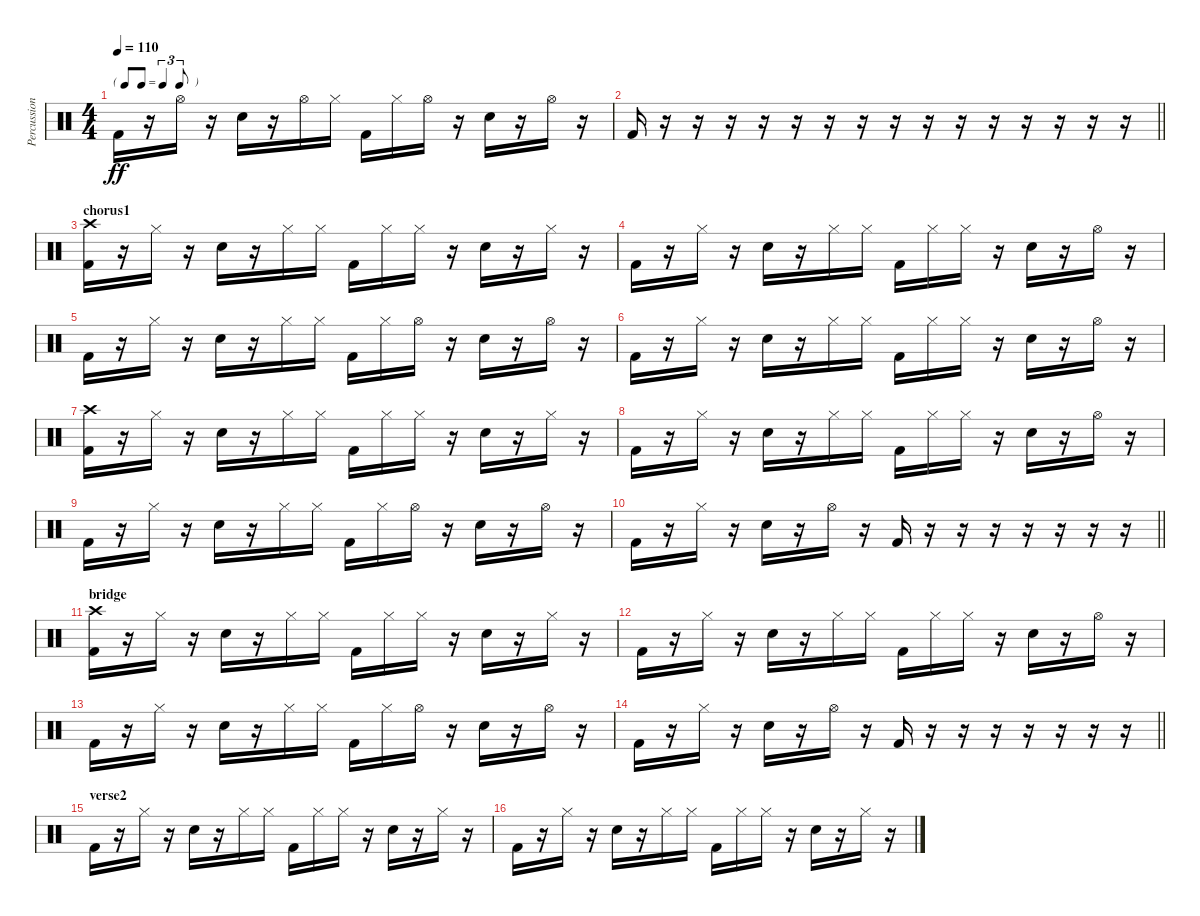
\track ("Percussion" "Percussion") {instrument percussion}
\staff {score}
\articulation defaults
\ts (4 4)
\tf triplet8th
\tempo 110
\clef neutral
\ks c "Kick (hit) 2".16{dy ff}
r.16 "Hi-Hat (open)".16 r.16 "Electric Snare (hit)".16 r.16 "Hi-Hat (open)".16 "Hi-Hat (closed)".16 "Kick (hit) 2".16 "Hi-Hat (closed)".16 "Hi-Hat (open)".16 r.16 "Electric Snare (hit)".16 r.16 "Hi-Hat (open)".16 r.16 |
\barLineRight lightlight "Kick (hit) 2".16
r.16 r.16 r.16 r.16 r.16 r.16 r.16 r.16 r.16 r.16 r.16 r.16 r.16 r.16 r.16 |
\section ("" "chorus1")
("Crash high (hit)" "Kick (hit) 2").16 r.16 "Hi-Hat (closed)".16 r.16 "Electric Snare (hit)".16 r.16 "Hi-Hat (closed)".16 "Hi-Hat (closed)".16 "Kick (hit) 2".16 "Hi-Hat (closed)".16 "Hi-Hat (closed)".16 r.16 "Electric Snare (hit)".16 r.16 "Hi-Hat (closed)".16 r.16 |
"Kick (hit) 2".16 r.16 "Hi-Hat (closed)".16 r.16 "Electric Snare (hit)".16 r.16 "Hi-Hat (closed)".16 "Hi-Hat (closed)".16 "Kick (hit) 2".16 "Hi-Hat (closed)".16 "Hi-Hat (closed)".16 r.16 "Electric Snare (hit)".16 r.16 "Hi-Hat (open)".16 r.16 |
"Kick (hit) 2".16 r.16 "Hi-Hat (closed)".16 r.16 "Electric Snare (hit)".16 r.16 "Hi-Hat (closed)".16 "Hi-Hat (closed)".16 "Kick (hit) 2".16 "Hi-Hat (closed)".16 "Hi-Hat (open)".16 r.16 "Electric Snare (hit)".16 r.16 "Hi-Hat (open)".16 r.16 |
"Kick (hit) 2".16 r.16 "Hi-Hat (closed)".16 r.16 "Electric Snare (hit)".16 r.16 "Hi-Hat (closed)".16 "Hi-Hat (closed)".16 "Kick (hit) 2".16 "Hi-Hat (closed)".16 "Hi-Hat (closed)".16 r.16 "Electric Snare (hit)".16 r.16 "Hi-Hat (open)".16 r.16 |
("Crash high (hit)" "Kick (hit) 2").16 r.16 "Hi-Hat (closed)".16 r.16 "Electric Snare (hit)".16 r.16 "Hi-Hat (closed)".16 "Hi-Hat (closed)".16 "Kick (hit) 2".16 "Hi-Hat (closed)".16 "Hi-Hat (closed)".16 r.16 "Electric Snare (hit)".16 r.16 "Hi-Hat (closed)".16 r.16 |
"Kick (hit) 2".16 r.16 "Hi-Hat (closed)".16 r.16 "Electric Snare (hit)".16 r.16 "Hi-Hat (closed)".16 "Hi-Hat (closed)".16 "Kick (hit) 2".16 "Hi-Hat (closed)".16 "Hi-Hat (closed)".16 r.16 "Electric Snare (hit)".16 r.16 "Hi-Hat (open)".16 r.16 |
"Kick (hit) 2".16 r.16 "Hi-Hat (closed)".16 r.16 "Electric Snare (hit)".16 r.16 "Hi-Hat (closed)".16 "Hi-Hat (closed)".16 "Kick (hit) 2".16 "Hi-Hat (closed)".16 "Hi-Hat (open)".16 r.16 "Electric Snare (hit)".16 r.16 "Hi-Hat (open)".16 r.16 |
\barLineRight lightlight "Kick (hit) 2".16
r.16 "Hi-Hat (closed)".16 r.16 "Electric Snare (hit)".16 r.16 "Hi-Hat (open)".16 r.16 "Kick (hit) 2".16 r.16 r.16 r.16 r.16 r.16 r.16 r.16 |
\section ("" "bridge")
("Crash high (hit)" "Kick (hit) 2").16 r.16 "Hi-Hat (closed)".16 r.16 "Electric Snare (hit)".16 r.16 "Hi-Hat (closed)".16 "Hi-Hat (closed)".16 "Kick (hit) 2".16 "Hi-Hat (closed)".16 "Hi-Hat (closed)".16 r.16 "Electric Snare (hit)".16 r.16 "Hi-Hat (closed)".16 r.16 |
"Kick (hit) 2".16 r.16 "Hi-Hat (closed)".16 r.16 "Electric Snare (hit)".16 r.16 "Hi-Hat (closed)".16 "Hi-Hat (closed)".16 "Kick (hit) 2".16 "Hi-Hat (closed)".16 "Hi-Hat (closed)".16 r.16 "Electric Snare (hit)".16 r.16 "Hi-Hat (open)".16 r.16 |
"Kick (hit) 2".16 r.16 "Hi-Hat (closed)".16 r.16 "Electric Snare (hit)".16 r.16 "Hi-Hat (closed)".16 "Hi-Hat (closed)".16 "Kick (hit) 2".16 "Hi-Hat (closed)".16 "Hi-Hat (open)".16 r.16 "Electric Snare (hit)".16 r.16 "Hi-Hat (open)".16 r.16 |
\barLineRight lightlight "Kick (hit) 2".16
r.16 "Hi-Hat (closed)".16 r.16 "Electric Snare (hit)".16 r.16 "Hi-Hat (open)".16 r.16 "Kick (hit) 2".16 r.16 r.16 r.16 r.16 r.16 r.16 r.16 |
\section ("" "verse2")
"Kick (hit) 2".16 r.16 "Hi-Hat (closed)".16 r.16 "Electric Snare (hit)".16 r.16 "Hi-Hat (closed)".16 "Hi-Hat (closed)".16 "Kick (hit) 2".16 "Hi-Hat (closed)".16 "Hi-Hat (closed)".16 r.16 "Electric Snare (hit)".16 r.16 "Hi-Hat (closed)".16 r.16 |
"Kick (hit) 2".16 r.16 "Hi-Hat (closed)".16 r.16 "Electric Snare (hit)".16 r.16 "Hi-Hat (closed)".16 "Hi-Hat (closed)".16 "Kick (hit) 2".16 "Hi-Hat (closed)".16 "Hi-Hat (closed)".16 r.16 "Electric Snare (hit)".16 r.16 "Hi-Hat (closed)".16 r.16
